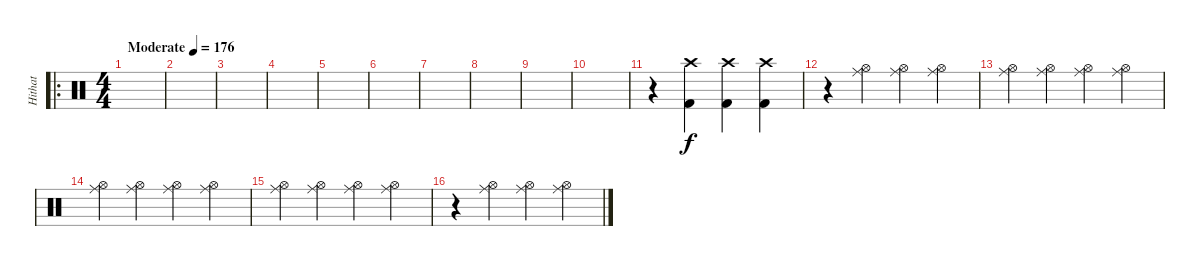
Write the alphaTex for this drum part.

\track ("Hithat" "Hithat") {instrument percussion}
\staff {score}
\articulation defaults
\ro
\ts (4 4)
\tempo (176 "Moderate")
\clef neutral
\ks c
|
|
|
|
|
|
|
|
|
|
r.4 ("Kick (hit) 2" "Crash high (hit)").4 ("Kick (hit) 2" "Crash high (hit)").4 ("Kick (hit) 2" "Crash high (hit)").4 |
r.4 ("Hi-Hat (open)" "Ride (middle)").4 ("Hi-Hat (open)" "Ride (middle)").4 ("Hi-Hat (open)" "Ride (middle)").4 |
("Hi-Hat (open)" "Ride (middle)").4 ("Hi-Hat (open)" "Ride (middle)").4 ("Hi-Hat (open)" "Ride (middle)").4 ("Hi-Hat (open)" "Ride (middle)").4 |
("Hi-Hat (open)" "Ride (middle)").4 ("Hi-Hat (open)" "Ride (middle)").4 ("Hi-Hat (open)" "Ride (middle)").4 ("Hi-Hat (open)" "Ride (middle)").4 |
("Hi-Hat (open)" "Ride (middle)").4 ("Hi-Hat (open)" "Ride (middle)").4 ("Hi-Hat (open)" "Ride (middle)").4 ("Hi-Hat (open)" "Ride (middle)").4 |
r.4 ("Hi-Hat (open)" "Ride (middle)").4 ("Hi-Hat (open)" "Ride (middle)").4 ("Hi-Hat (open)" "Ride (middle)").4
